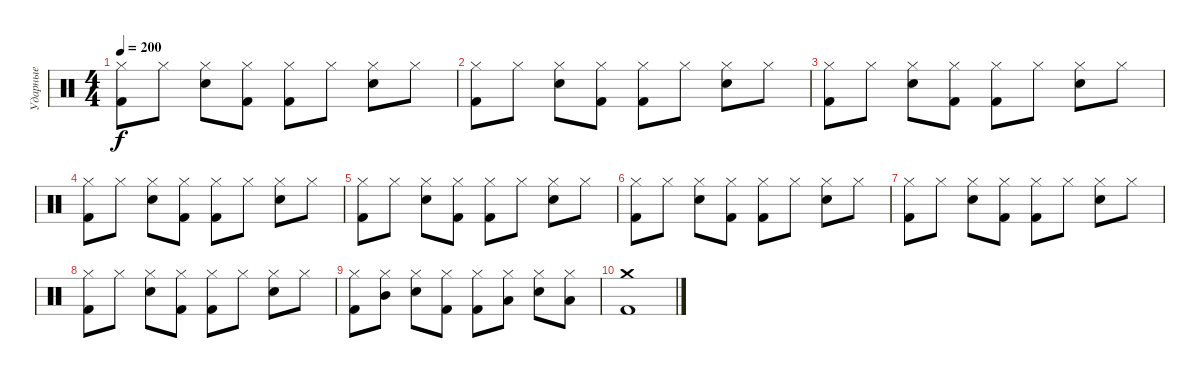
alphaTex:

\track ("Ударные" "Ударные") {instrument percussion}
\staff {score}
\articulation defaults
\ts (4 4)
\tempo 200
\clef neutral
\ks c
("Kick (hit) 2" "Hi-Hat (closed)").8{dy f} "Hi-Hat (closed)".8 ("Electric Snare (hit)" "Hi-Hat (closed)").8 ("Kick (hit) 2" "Hi-Hat (closed)").8 ("Kick (hit) 2" "Hi-Hat (closed)").8 "Hi-Hat (closed)".8 ("Electric Snare (hit)" "Hi-Hat (closed)").8 "Hi-Hat (closed)".8 |
("Kick (hit) 2" "Hi-Hat (closed)").8 "Hi-Hat (closed)".8 ("Electric Snare (hit)" "Hi-Hat (closed)").8 ("Kick (hit) 2" "Hi-Hat (closed)").8 ("Kick (hit) 2" "Hi-Hat (closed)").8 "Hi-Hat (closed)".8 ("Electric Snare (hit)" "Hi-Hat (closed)").8 "Hi-Hat (closed)".8 |
("Kick (hit) 2" "Hi-Hat (closed)").8 "Hi-Hat (closed)".8 ("Electric Snare (hit)" "Hi-Hat (closed)").8 ("Kick (hit) 2" "Hi-Hat (closed)").8 ("Kick (hit) 2" "Hi-Hat (closed)").8 "Hi-Hat (closed)".8 ("Electric Snare (hit)" "Hi-Hat (closed)").8 "Hi-Hat (closed)".8 |
("Kick (hit) 2" "Hi-Hat (closed)").8 "Hi-Hat (closed)".8 ("Electric Snare (hit)" "Hi-Hat (closed)").8 ("Kick (hit) 2" "Hi-Hat (closed)").8 ("Kick (hit) 2" "Hi-Hat (closed)").8 "Hi-Hat (closed)".8 ("Electric Snare (hit)" "Hi-Hat (closed)").8 "Hi-Hat (closed)".8 |
("Kick (hit) 2" "Hi-Hat (closed)").8 "Hi-Hat (closed)".8 ("Electric Snare (hit)" "Hi-Hat (closed)").8 ("Kick (hit) 2" "Hi-Hat (closed)").8 ("Kick (hit) 2" "Hi-Hat (closed)").8 "Hi-Hat (closed)".8 ("Electric Snare (hit)" "Hi-Hat (closed)").8 "Hi-Hat (closed)".8 |
("Kick (hit) 2" "Hi-Hat (closed)").8 "Hi-Hat (closed)".8 ("Electric Snare (hit)" "Hi-Hat (closed)").8 ("Kick (hit) 2" "Hi-Hat (closed)").8 ("Kick (hit) 2" "Hi-Hat (closed)").8 "Hi-Hat (closed)".8 ("Electric Snare (hit)" "Hi-Hat (closed)").8 "Hi-Hat (closed)".8 |
("Kick (hit) 2" "Hi-Hat (closed)").8 "Hi-Hat (closed)".8 ("Electric Snare (hit)" "Hi-Hat (closed)").8 ("Kick (hit) 2" "Hi-Hat (closed)").8 ("Kick (hit) 2" "Hi-Hat (closed)").8 "Hi-Hat (closed)".8 ("Electric Snare (hit)" "Hi-Hat (closed)").8 "Hi-Hat (closed)".8 |
("Kick (hit) 2" "Hi-Hat (closed)").8 "Hi-Hat (closed)".8 ("Electric Snare (hit)" "Hi-Hat (closed)").8 ("Kick (hit) 2" "Hi-Hat (closed)").8 ("Kick (hit) 2" "Hi-Hat (closed)").8 "Hi-Hat (closed)".8 ("Electric Snare (hit)" "Hi-Hat (closed)").8 "Hi-Hat (closed)".8 |
("Kick (hit) 2" "Hi-Hat (closed)").8 ("Hi-Hat (closed)" "Mid Tom (hit)").8 ("Electric Snare (hit)" "Hi-Hat (closed)").8 ("Kick (hit) 2" "Hi-Hat (closed)").8 ("Kick (hit) 2" "Hi-Hat (closed)").8 ("Hi-Hat (closed)" "Low Tom (hit)").8 ("Electric Snare (hit)" "Hi-Hat (closed)").8 ("Hi-Hat (closed)" "Low Floor Tom (hit)").8 |
("Crash medium (hit)" "Kick (hit) 2").1
